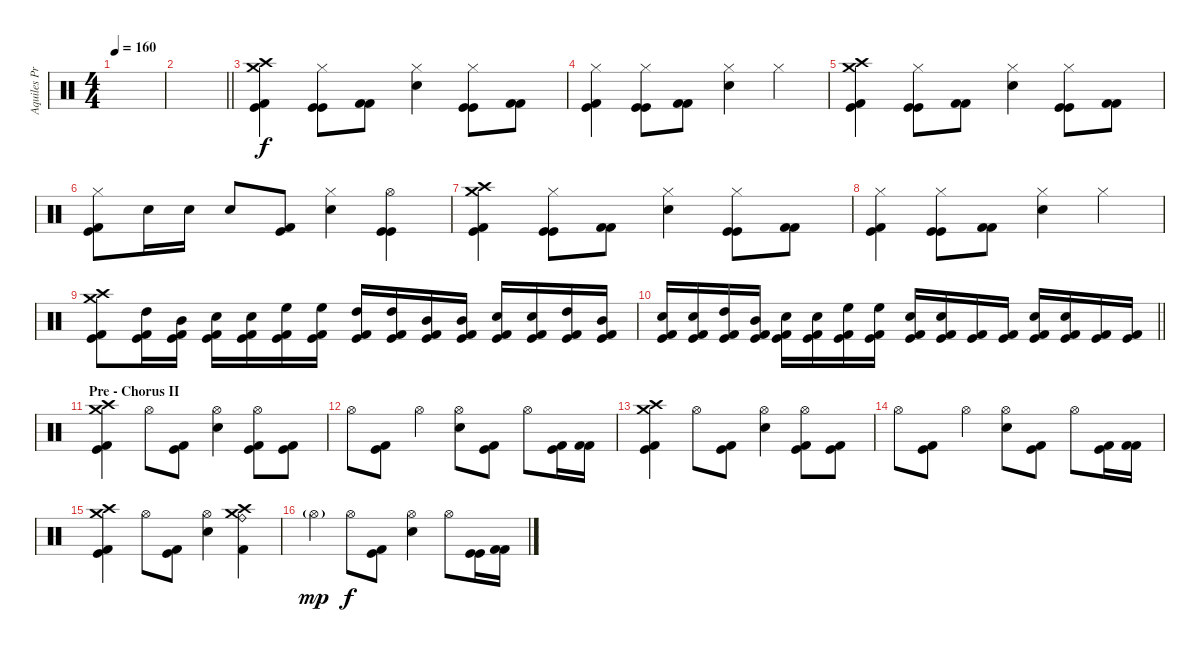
\track ("Aquiles Priester" "Aquiles Pr") {instrument percussion}
\staff {score}
\articulation defaults
\ts (4 4)
\tempo 160
\clef neutral
\ks c
|
\barLineRight lightlight
|
("Crash medium (hit)" "Crash high (hit)" "Kick (hit) 2" "Kick (hit)").4 ("Hi-Hat (closed)" "Kick (hit)" "Kick (hit)").8 ("Kick (hit) 2" "Kick (hit) 2").8 ("Hi-Hat (closed)" "Electric Snare (hit)").4 ("Hi-Hat (closed)" "Kick (hit)" "Kick (hit)").8 ("Kick (hit) 2" "Kick (hit) 2").8 |
("Hi-Hat (closed)" "Kick (hit)" "Kick (hit) 2").4 ("Hi-Hat (closed)" "Kick (hit)" "Kick (hit)").8 ("Kick (hit) 2" "Kick (hit) 2").8 ("Hi-Hat (closed)" "Electric Snare (hit)").4 "Hi-Hat (closed)".4 |
("Crash medium (hit)" "Crash high (hit)" "Kick (hit) 2" "Kick (hit)").4 ("Hi-Hat (closed)" "Kick (hit)" "Kick (hit)").8 ("Kick (hit) 2" "Kick (hit) 2").8 ("Hi-Hat (closed)" "Electric Snare (hit)").4 ("Hi-Hat (closed)" "Kick (hit)" "Kick (hit)").8 ("Kick (hit) 2" "Kick (hit) 2").8 |
("Hi-Hat (closed)" "Kick (hit) 2" "Kick (hit)").8 "Electric Snare (hit)".16 "Electric Snare (hit)".16 "Electric Snare (hit)".8 ("Kick (hit)" "Kick (hit) 2").8 ("Hi-Hat (closed)" "Electric Snare (hit)").4 ("Hi-Hat (open)" "Kick (hit)" "Kick (hit)").4 |
("Crash medium (hit)" "Crash high (hit)" "Kick (hit) 2" "Kick (hit)").4 ("Hi-Hat (closed)" "Kick (hit)" "Kick (hit)").8 ("Kick (hit) 2" "Kick (hit) 2").8 ("Hi-Hat (closed)" "Electric Snare (hit)").4 ("Hi-Hat (closed)" "Kick (hit)" "Kick (hit)").8 ("Kick (hit) 2" "Kick (hit) 2").8 |
("Hi-Hat (closed)" "Kick (hit)" "Kick (hit) 2").4 ("Hi-Hat (closed)" "Kick (hit)" "Kick (hit)").8 ("Kick (hit) 2" "Kick (hit) 2").8 ("Hi-Hat (closed)" "Electric Snare (hit)").4 "Hi-Hat (closed)".4 |
("Crash medium (hit)" "Crash high (hit)" "Kick (hit) 2" "Kick (hit)").8 ("High Tom (hit)" "Kick (hit)" "Kick (hit) 2").16 ("Mid Tom (hit)" "Kick (hit)" "Kick (hit) 2").16 ("Electric Snare (hit)" "Kick (hit)" "Kick (hit) 2").16 ("Electric Snare (hit)" "Kick (hit)" "Kick (hit) 2").16 ("High Floor Tom (hit)" "Kick (hit)" "Kick (hit) 2").16 ("High Floor Tom (hit)" "Kick (hit)" "Kick (hit) 2").16 ("High Tom (hit)" "Kick (hit)" "Kick (hit) 2").16 ("High Tom (hit)" "Kick (hit)" "Kick (hit) 2").16 ("Mid Tom (hit)" "Kick (hit)" "Kick (hit) 2").16 ("Mid Tom (hit)" "Kick (hit)" "Kick (hit) 2").16 ("Electric Snare (hit)" "Kick (hit)" "Kick (hit) 2").16 ("Electric Snare (hit)" "Kick (hit)" "Kick (hit) 2").16 ("High Tom (hit)" "Kick (hit)" "Kick (hit) 2").16 ("Mid Tom (hit)" "Kick (hit)" "Kick (hit) 2").16 |
\barLineRight lightlight
("Electric Snare (hit)" "Kick (hit)" "Kick (hit) 2").16 ("Electric Snare (hit)" "Kick (hit) 2" "Kick (hit)").16 ("High Tom (hit)" "Kick (hit)" "Kick (hit) 2").16 ("Mid Tom (hit)" "Kick (hit)" "Kick (hit) 2").16 ("Electric Snare (hit)" "Kick (hit)" "Kick (hit) 2").16 ("Electric Snare (hit)" "Kick (hit)" "Kick (hit) 2").16 ("High Floor Tom (hit)" "Kick (hit)" "Kick (hit) 2").16 ("High Floor Tom (hit)" "Kick (hit)" "Kick (hit) 2").16 ("Electric Snare (hit)" "Kick (hit)" "Kick (hit) 2").16 ("Electric Snare (hit)" "Kick (hit)" "Kick (hit) 2").16 ("Kick (hit)" "Kick (hit) 2").16 ("Kick (hit)" "Kick (hit) 2").16 ("Electric Snare (hit)" "Kick (hit)" "Kick (hit) 2").16 ("Electric Snare (hit)" "Kick (hit)" "Kick (hit) 2").16 ("Kick (hit)" "Kick (hit) 2").16 ("Kick (hit)" "Kick (hit) 2").16 |
\section ("" "Pre - Chorus II")
("Crash medium (hit)" "Crash high (hit)" "Kick (hit)" "Kick (hit) 2").4 "Hi-Hat (open)".8 ("Kick (hit)" "Kick (hit) 2").8 ("Hi-Hat (open)" "Electric Snare (hit)").4 ("Hi-Hat (open)" "Kick (hit)" "Kick (hit) 2").8 ("Kick (hit)" "Kick (hit) 2").8 |
"Hi-Hat (open)".8 ("Kick (hit)" "Kick (hit) 2").8 "Hi-Hat (open)".4 ("Hi-Hat (open)" "Electric Snare (hit)").8 ("Kick (hit)" "Kick (hit) 2").8 "Hi-Hat (open)".8 ("Kick (hit)" "Kick (hit) 2").16 ("Kick (hit) 2" "Kick (hit) 2").16 |
("Crash medium (hit)" "Crash high (hit)" "Kick (hit)" "Kick (hit) 2").4 "Hi-Hat (open)".8 ("Kick (hit)" "Kick (hit) 2").8 ("Hi-Hat (open)" "Electric Snare (hit)").4 ("Hi-Hat (open)" "Kick (hit)" "Kick (hit) 2").8 ("Kick (hit)" "Kick (hit) 2").8 |
"Hi-Hat (open)".8 ("Kick (hit)" "Kick (hit) 2").8 "Hi-Hat (open)".4 ("Hi-Hat (open)" "Electric Snare (hit)").8 ("Kick (hit)" "Kick (hit) 2").8 "Hi-Hat (open)".8 ("Kick (hit)" "Kick (hit) 2").16 ("Kick (hit) 2" "Kick (hit) 2").16 |
("Crash medium (hit)" "Crash high (hit)" "Kick (hit)" "Kick (hit) 2").4 "Hi-Hat (open)".8 ("Kick (hit)" "Kick (hit) 2").8 ("Hi-Hat (open)" "Electric Snare (hit)").4 ("Crash medium (hit)" "Crash high (hit)" "Ride (bell)" "Kick (hit) 2").4 |
"Hi-Hat (open)"{g}.4{dy mp} "Hi-Hat (open)".8{dy f} ("Kick (hit)" "Kick (hit) 2").8 ("Hi-Hat (open)" "Electric Snare (hit)").4 "Hi-Hat (open)".8 ("Kick (hit)" "Kick (hit)").16 ("Kick (hit) 2" "Kick (hit) 2").16
